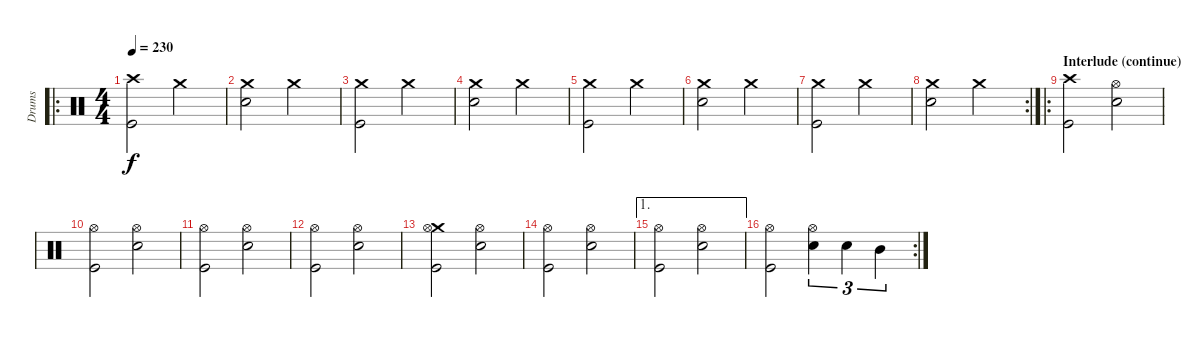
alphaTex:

\track ("Drums" "Drums") {instrument percussion}
\staff {score}
\articulation defaults
\ro
\ts (4 4)
\tempo 230
\clef neutral
\ks c
("Crash high (hit)" "Kick (hit)").2{dy f} "Crash medium (hit)".2 |
("Crash medium (hit)" "Electric Snare (hit)").2 "Crash medium (hit)".2 |
("Crash medium (hit)" "Kick (hit)").2 "Crash medium (hit)".2 |
("Crash medium (hit)" "Electric Snare (hit)").2 "Crash medium (hit)".2 |
("Crash medium (hit)" "Kick (hit)").2 "Crash medium (hit)".2 |
("Crash medium (hit)" "Electric Snare (hit)").2 "Crash medium (hit)".2 |
("Crash medium (hit)" "Kick (hit)").2 "Crash medium (hit)".2 |
\rc 2
("Crash medium (hit)" "Electric Snare (hit)").2 "Crash medium (hit)".2 |
\ro
\section ("" "Interlude (continue)")
("Crash high (hit)" "Kick (hit)").2 ("Hi-Hat (open)" "Electric Snare (hit)").2 |
("Hi-Hat (open)" "Kick (hit)").2 ("Hi-Hat (open)" "Electric Snare (hit)").2 |
("Hi-Hat (open)" "Kick (hit)").2 ("Hi-Hat (open)" "Electric Snare (hit)").2 |
("Hi-Hat (open)" "Kick (hit)").2 ("Hi-Hat (open)" "Electric Snare (hit)").2 |
("Crash medium (hit)" "Hi-Hat (open)" "Kick (hit)").2 ("Hi-Hat (open)" "Electric Snare (hit)").2 |
("Hi-Hat (open)" "Kick (hit)").2 ("Hi-Hat (open)" "Electric Snare (hit)").2 |
\ae 1
("Hi-Hat (open)" "Kick (hit)").2 ("Hi-Hat (open)" "Electric Snare (hit)").2 |
\rc 2
("Hi-Hat (open)" "Kick (hit)").2 ("Hi-Hat (open)" "Electric Snare (hit)").4{tu (3 2)} "Electric Snare (hit)".4{tu (3 2)} "Mid Tom (hit)".4{tu (3 2)}
